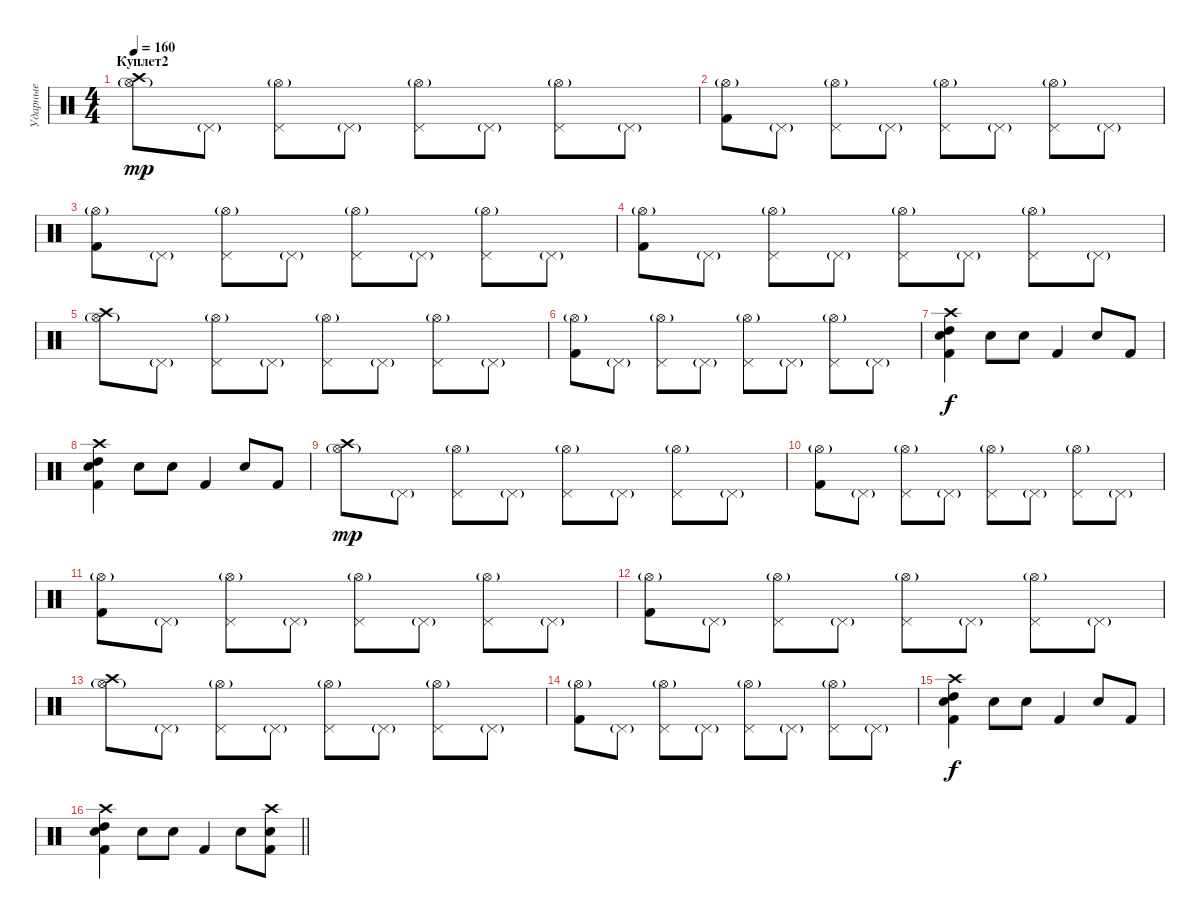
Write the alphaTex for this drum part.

\track ("Ударные" "Ударные") {instrument percussion}
\staff {score}
\articulation defaults
\ts (4 4)
\section ("" "Куплет2")
\tempo 160
\clef neutral
\ks c
("Crash high (hit)" "Hi-Hat (open)"{g}).8{dy mp} "Pedal Hi-Hat (hit)"{g}.8 ("Pedal Hi-Hat (hit)" "Hi-Hat (open)"{g}).8 "Pedal Hi-Hat (hit)"{g}.8 ("Pedal Hi-Hat (hit)" "Hi-Hat (open)"{g}).8 "Pedal Hi-Hat (hit)"{g}.8 ("Pedal Hi-Hat (hit)" "Hi-Hat (open)"{g}).8 "Pedal Hi-Hat (hit)"{g}.8 |
("Kick (hit) 2" "Hi-Hat (open)"{g}).8 "Pedal Hi-Hat (hit)"{g}.8 ("Pedal Hi-Hat (hit)" "Hi-Hat (open)"{g}).8 "Pedal Hi-Hat (hit)"{g}.8 ("Pedal Hi-Hat (hit)" "Hi-Hat (open)"{g}).8 "Pedal Hi-Hat (hit)"{g}.8 ("Pedal Hi-Hat (hit)" "Hi-Hat (open)"{g}).8 "Pedal Hi-Hat (hit)"{g}.8 |
("Kick (hit) 2" "Hi-Hat (open)"{g}).8 "Pedal Hi-Hat (hit)"{g}.8 ("Pedal Hi-Hat (hit)" "Hi-Hat (open)"{g}).8 "Pedal Hi-Hat (hit)"{g}.8 ("Pedal Hi-Hat (hit)" "Hi-Hat (open)"{g}).8 "Pedal Hi-Hat (hit)"{g}.8 ("Pedal Hi-Hat (hit)" "Hi-Hat (open)"{g}).8 "Pedal Hi-Hat (hit)"{g}.8 |
("Kick (hit) 2" "Hi-Hat (open)"{g}).8 "Pedal Hi-Hat (hit)"{g}.8 ("Pedal Hi-Hat (hit)" "Hi-Hat (open)"{g}).8 "Pedal Hi-Hat (hit)"{g}.8 ("Pedal Hi-Hat (hit)" "Hi-Hat (open)"{g}).8 "Pedal Hi-Hat (hit)"{g}.8 ("Pedal Hi-Hat (hit)" "Hi-Hat (open)"{g}).8 "Pedal Hi-Hat (hit)"{g}.8 |
("Crash high (hit)" "Hi-Hat (open)"{g}).8 "Pedal Hi-Hat (hit)"{g}.8 ("Pedal Hi-Hat (hit)" "Hi-Hat (open)"{g}).8 "Pedal Hi-Hat (hit)"{g}.8 ("Pedal Hi-Hat (hit)" "Hi-Hat (open)"{g}).8 "Pedal Hi-Hat (hit)"{g}.8 ("Pedal Hi-Hat (hit)" "Hi-Hat (open)"{g}).8 "Pedal Hi-Hat (hit)"{g}.8 |
("Kick (hit) 2" "Hi-Hat (open)"{g}).8 "Pedal Hi-Hat (hit)"{g}.8 ("Pedal Hi-Hat (hit)" "Hi-Hat (open)"{g}).8 "Pedal Hi-Hat (hit)"{g}.8 ("Pedal Hi-Hat (hit)" "Hi-Hat (open)"{g}).8 "Pedal Hi-Hat (hit)"{g}.8 ("Pedal Hi-Hat (hit)" "Hi-Hat (open)"{g}).8 "Pedal Hi-Hat (hit)"{g}.8 |
("Kick (hit) 2" "High Tom (hit)" "Electric Snare (hit)" "Crash high (hit)").4{dy f} "Electric Snare (hit)".8 "Electric Snare (hit)".8 "Kick (hit) 2".4 "Electric Snare (hit)".8 "Kick (hit) 2".8 |
("Kick (hit) 2" "High Tom (hit)" "Electric Snare (hit)" "Crash high (hit)").4 "Electric Snare (hit)".8 "Electric Snare (hit)".8 "Kick (hit) 2".4 "Electric Snare (hit)".8 "Kick (hit) 2".8 |
("Crash high (hit)" "Hi-Hat (open)"{g}).8{dy mp} "Pedal Hi-Hat (hit)"{g}.8 ("Pedal Hi-Hat (hit)" "Hi-Hat (open)"{g}).8 "Pedal Hi-Hat (hit)"{g}.8 ("Pedal Hi-Hat (hit)" "Hi-Hat (open)"{g}).8 "Pedal Hi-Hat (hit)"{g}.8 ("Pedal Hi-Hat (hit)" "Hi-Hat (open)"{g}).8 "Pedal Hi-Hat (hit)"{g}.8 |
("Kick (hit) 2" "Hi-Hat (open)"{g}).8 "Pedal Hi-Hat (hit)"{g}.8 ("Pedal Hi-Hat (hit)" "Hi-Hat (open)"{g}).8 "Pedal Hi-Hat (hit)"{g}.8 ("Pedal Hi-Hat (hit)" "Hi-Hat (open)"{g}).8 "Pedal Hi-Hat (hit)"{g}.8 ("Pedal Hi-Hat (hit)" "Hi-Hat (open)"{g}).8 "Pedal Hi-Hat (hit)"{g}.8 |
("Kick (hit) 2" "Hi-Hat (open)"{g}).8 "Pedal Hi-Hat (hit)"{g}.8 ("Pedal Hi-Hat (hit)" "Hi-Hat (open)"{g}).8 "Pedal Hi-Hat (hit)"{g}.8 ("Pedal Hi-Hat (hit)" "Hi-Hat (open)"{g}).8 "Pedal Hi-Hat (hit)"{g}.8 ("Pedal Hi-Hat (hit)" "Hi-Hat (open)"{g}).8 "Pedal Hi-Hat (hit)"{g}.8 |
("Kick (hit) 2" "Hi-Hat (open)"{g}).8 "Pedal Hi-Hat (hit)"{g}.8 ("Pedal Hi-Hat (hit)" "Hi-Hat (open)"{g}).8 "Pedal Hi-Hat (hit)"{g}.8 ("Pedal Hi-Hat (hit)" "Hi-Hat (open)"{g}).8 "Pedal Hi-Hat (hit)"{g}.8 ("Pedal Hi-Hat (hit)" "Hi-Hat (open)"{g}).8 "Pedal Hi-Hat (hit)"{g}.8 |
("Crash high (hit)" "Hi-Hat (open)"{g}).8 "Pedal Hi-Hat (hit)"{g}.8 ("Pedal Hi-Hat (hit)" "Hi-Hat (open)"{g}).8 "Pedal Hi-Hat (hit)"{g}.8 ("Pedal Hi-Hat (hit)" "Hi-Hat (open)"{g}).8 "Pedal Hi-Hat (hit)"{g}.8 ("Pedal Hi-Hat (hit)" "Hi-Hat (open)"{g}).8 "Pedal Hi-Hat (hit)"{g}.8 |
("Kick (hit) 2" "Hi-Hat (open)"{g}).8 "Pedal Hi-Hat (hit)"{g}.8 ("Pedal Hi-Hat (hit)" "Hi-Hat (open)"{g}).8 "Pedal Hi-Hat (hit)"{g}.8 ("Pedal Hi-Hat (hit)" "Hi-Hat (open)"{g}).8 "Pedal Hi-Hat (hit)"{g}.8 ("Pedal Hi-Hat (hit)" "Hi-Hat (open)"{g}).8 "Pedal Hi-Hat (hit)"{g}.8 |
("Kick (hit) 2" "High Tom (hit)" "Electric Snare (hit)" "Crash high (hit)").4{dy f} "Electric Snare (hit)".8 "Electric Snare (hit)".8 "Kick (hit) 2".4 "Electric Snare (hit)".8 "Kick (hit) 2".8 |
\barLineRight lightlight
("Kick (hit) 2" "High Tom (hit)" "Electric Snare (hit)" "Crash high (hit)").4 "Electric Snare (hit)".8 "Electric Snare (hit)".8 "Kick (hit) 2".4 "Electric Snare (hit)".8 ("Electric Snare (hit)" "Kick (hit) 2" "Crash high (hit)").8
